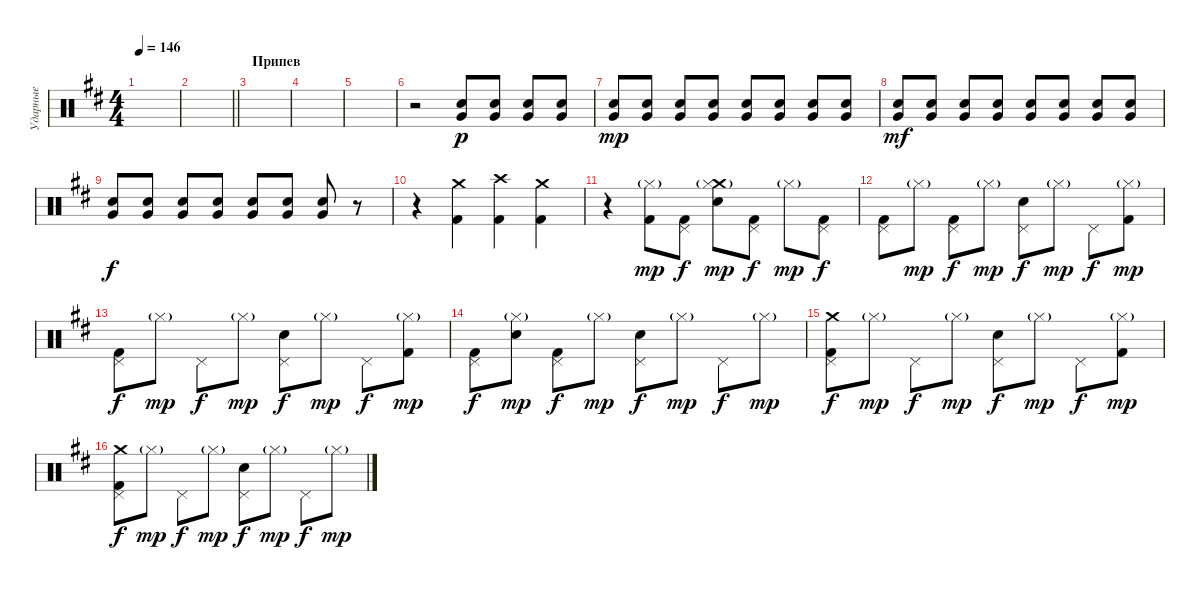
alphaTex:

\track ("Ударные" "Ударные") {instrument percussion}
\staff {score}
\articulation defaults
\ts (4 4)
\tempo 146
\clef neutral
\ks bminor
|
\barLineRight lightlight
|
\section ("" "Припев")
|
|
|
r.2 ("Very Low Tom (hit)" "Electric Snare (hit)").8{dy p} ("Very Low Tom (hit)" "Electric Snare (hit)").8 ("Very Low Tom (hit)" "Electric Snare (hit)").8 ("Very Low Tom (hit)" "Electric Snare (hit)").8 |
("Very Low Tom (hit)" "Electric Snare (hit)").8{dy mp} ("Very Low Tom (hit)" "Electric Snare (hit)").8 ("Very Low Tom (hit)" "Electric Snare (hit)").8 ("Very Low Tom (hit)" "Electric Snare (hit)").8 ("Very Low Tom (hit)" "Electric Snare (hit)").8 ("Very Low Tom (hit)" "Electric Snare (hit)").8 ("Very Low Tom (hit)" "Electric Snare (hit)").8 ("Very Low Tom (hit)" "Electric Snare (hit)").8 |
("Very Low Tom (hit)" "Electric Snare (hit)").8{dy mf} ("Very Low Tom (hit)" "Electric Snare (hit)").8 ("Very Low Tom (hit)" "Electric Snare (hit)").8 ("Very Low Tom (hit)" "Electric Snare (hit)").8 ("Very Low Tom (hit)" "Electric Snare (hit)").8 ("Very Low Tom (hit)" "Electric Snare (hit)").8 ("Very Low Tom (hit)" "Electric Snare (hit)").8 ("Very Low Tom (hit)" "Electric Snare (hit)").8 |
("Very Low Tom (hit)" "Electric Snare (hit)").8{dy f} ("Very Low Tom (hit)" "Electric Snare (hit)").8 ("Very Low Tom (hit)" "Electric Snare (hit)").8 ("Very Low Tom (hit)" "Electric Snare (hit)").8 ("Very Low Tom (hit)" "Electric Snare (hit)").8 ("Very Low Tom (hit)" "Electric Snare (hit)").8 ("Very Low Tom (hit)" "Electric Snare (hit)").8 r.8 |
r.4 ("Crash medium (hit)" "Kick (hit) 2").4 ("Crash high (hit)" "Kick (hit) 2").4 ("Crash medium (hit)" "Kick (hit) 2").4 |
r.4 ("Kick (hit) 2" "Hi-Hat (closed)"{g}).8{dy mp} ("Kick (hit) 2" "Pedal Hi-Hat (hit)").8{dy f} ("Crash medium (hit)" "Electric Snare (hit)" "Hi-Hat (closed)"{g}).8{dy mp} ("Kick (hit) 2" "Pedal Hi-Hat (hit)").8{dy f} "Hi-Hat (closed)"{g}.8{dy mp} ("Kick (hit) 2" "Pedal Hi-Hat (hit)").8{dy f} |
("Kick (hit) 2" "Pedal Hi-Hat (hit)").8 "Hi-Hat (closed)"{g}.8{dy mp} ("Kick (hit) 2" "Pedal Hi-Hat (hit)").8{dy f} "Hi-Hat (closed)"{g}.8{dy mp} ("Electric Snare (hit)" "Pedal Hi-Hat (hit)").8{dy f} "Hi-Hat (closed)"{g}.8{dy mp} "Pedal Hi-Hat (hit)".8{dy f} ("Kick (hit) 2" "Hi-Hat (closed)"{g}).8{dy mp} |
("Kick (hit) 2" "Pedal Hi-Hat (hit)").8{dy f} "Hi-Hat (closed)"{g}.8{dy mp} "Pedal Hi-Hat (hit)".8{dy f} "Hi-Hat (closed)"{g}.8{dy mp} ("Electric Snare (hit)" "Pedal Hi-Hat (hit)").8{dy f} "Hi-Hat (closed)"{g}.8{dy mp} "Pedal Hi-Hat (hit)".8{dy f} ("Kick (hit) 2" "Hi-Hat (closed)"{g}).8{dy mp} |
("Kick (hit) 2" "Pedal Hi-Hat (hit)").8{dy f} ("Electric Snare (hit)" "Hi-Hat (closed)"{g}).8{dy mp} ("Kick (hit) 2" "Pedal Hi-Hat (hit)").8{dy f} "Hi-Hat (closed)"{g}.8{dy mp} ("Electric Snare (hit)" "Pedal Hi-Hat (hit)").8{dy f} "Hi-Hat (closed)"{g}.8{dy mp} "Pedal Hi-Hat (hit)".8{dy f} "Hi-Hat (closed)"{g}.8{dy mp} |
("Crash medium (hit)" "Kick (hit) 2" "Pedal Hi-Hat (hit)").8{dy f} "Hi-Hat (closed)"{g}.8{dy mp} "Pedal Hi-Hat (hit)".8{dy f} "Hi-Hat (closed)"{g}.8{dy mp} ("Electric Snare (hit)" "Pedal Hi-Hat (hit)").8{dy f} "Hi-Hat (closed)"{g}.8{dy mp} "Pedal Hi-Hat (hit)".8{dy f} ("Kick (hit) 2" "Hi-Hat (closed)"{g}).8{dy mp} |
("Crash medium (hit)" "Kick (hit) 2" "Pedal Hi-Hat (hit)").8{dy f} "Hi-Hat (closed)"{g}.8{dy mp} "Pedal Hi-Hat (hit)".8{dy f} "Hi-Hat (closed)"{g}.8{dy mp} ("Electric Snare (hit)" "Pedal Hi-Hat (hit)").8{dy f} "Hi-Hat (closed)"{g}.8{dy mp} "Pedal Hi-Hat (hit)".8{dy f} "Hi-Hat (closed)"{g}.8{dy mp}
